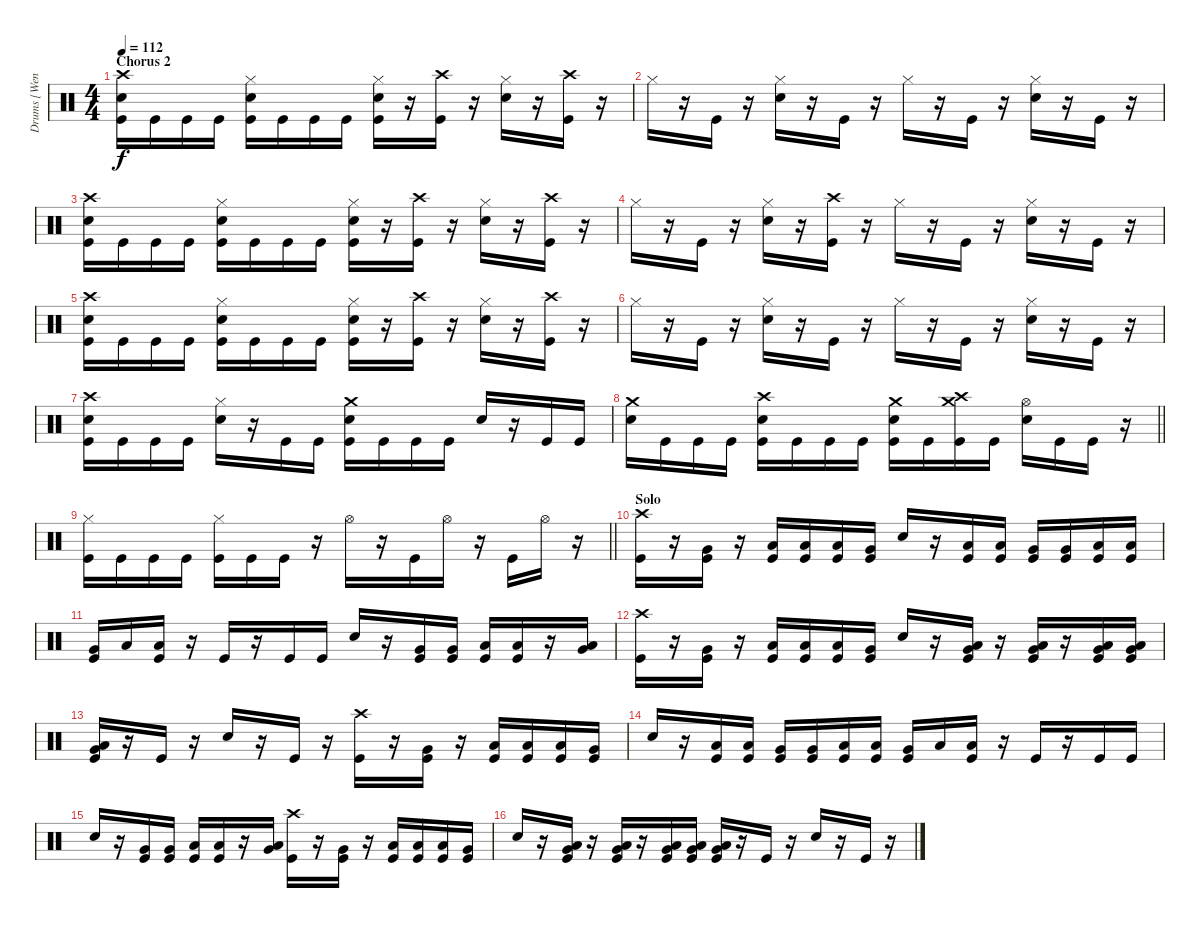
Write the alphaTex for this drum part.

\track ("Drums [Wengren]" "Drums [Wen") {instrument percussion}
\staff {score}
\articulation defaults
\ts (4 4)
\section ("" "Chorus 2")
\tempo 112
\clef neutral
\ks c
("Crash high (hit)" "Electric Snare (hit)" "Kick (hit)").16{dy f} "Kick (hit)".16 "Kick (hit)".16 "Kick (hit)".16 ("Hi-Hat (closed)" "Electric Snare (hit)" "Kick (hit)").16 "Kick (hit)".16 "Kick (hit)".16 "Kick (hit)".16 ("Hi-Hat (closed)" "Electric Snare (hit)" "Kick (hit)").16 r.16 ("Crash high (hit)" "Kick (hit)").16 r.16 ("Hi-Hat (closed)" "Electric Snare (hit)").16 r.16 ("Crash high (hit)" "Kick (hit)").16 r.16 |
"Hi-Hat (closed)".16 r.16 "Kick (hit)".16 r.16 ("Hi-Hat (closed)" "Electric Snare (hit)").16 r.16 "Kick (hit)".16 r.16 "Hi-Hat (closed)".16 r.16 "Kick (hit)".16 r.16 ("Hi-Hat (closed)" "Electric Snare (hit)").16 r.16 "Kick (hit)".16 r.16 |
("Crash high (hit)" "Electric Snare (hit)" "Kick (hit)").16 "Kick (hit)".16 "Kick (hit)".16 "Kick (hit)".16 ("Hi-Hat (closed)" "Electric Snare (hit)" "Kick (hit)").16 "Kick (hit)".16 "Kick (hit)".16 "Kick (hit)".16 ("Hi-Hat (closed)" "Electric Snare (hit)" "Kick (hit)").16 r.16 ("Crash high (hit)" "Kick (hit)").16 r.16 ("Hi-Hat (closed)" "Electric Snare (hit)").16 r.16 ("Crash high (hit)" "Kick (hit)").16 r.16 |
"Hi-Hat (closed)".16 r.16 "Kick (hit)".16 r.16 ("Hi-Hat (closed)" "Electric Snare (hit)").16 r.16 ("Crash high (hit)" "Kick (hit)").16 r.16 "Hi-Hat (closed)".16 r.16 "Kick (hit)".16 r.16 ("Hi-Hat (closed)" "Electric Snare (hit)").16 r.16 "Kick (hit)".16 r.16 |
("Crash high (hit)" "Electric Snare (hit)" "Kick (hit)").16 "Kick (hit)".16 "Kick (hit)".16 "Kick (hit)".16 ("Hi-Hat (closed)" "Electric Snare (hit)" "Kick (hit)").16 "Kick (hit)".16 "Kick (hit)".16 "Kick (hit)".16 ("Hi-Hat (closed)" "Electric Snare (hit)" "Kick (hit)").16 r.16 ("Crash high (hit)" "Kick (hit)").16 r.16 ("Hi-Hat (closed)" "Electric Snare (hit)").16 r.16 ("Crash high (hit)" "Kick (hit)").16 r.16 |
"Hi-Hat (closed)".16 r.16 "Kick (hit)".16 r.16 ("Hi-Hat (closed)" "Electric Snare (hit)").16 r.16 "Kick (hit)".16 r.16 "Hi-Hat (closed)".16 r.16 "Kick (hit)".16 r.16 ("Hi-Hat (closed)" "Electric Snare (hit)").16 r.16 "Kick (hit)".16 r.16 |
("Crash high (hit)" "Electric Snare (hit)" "Kick (hit)").16 "Kick (hit)".16 "Kick (hit)".16 "Kick (hit)".16 ("Hi-Hat (closed)" "Electric Snare (hit)").16 r.16 "Kick (hit)".16 "Kick (hit)".16 ("Crash medium (hit)" "Electric Snare (hit)" "Kick (hit)").16 "Kick (hit)".16 "Kick (hit)".16 "Kick (hit)".16 "Electric Snare (hit)".16 r.16 "Kick (hit)".16 "Kick (hit)".16 |
\barLineRight lightlight
("Crash medium (hit)" "Electric Snare (hit)").16 "Kick (hit)".16 "Kick (hit)".16 "Kick (hit)".16 ("Crash high (hit)" "Electric Snare (hit)" "Kick (hit)").16 "Kick (hit)".16 "Kick (hit)".16 "Kick (hit)".16 ("Crash medium (hit)" "Electric Snare (hit)" "Kick (hit)").16 "Kick (hit)".16 ("Crash medium (hit)" "Crash high (hit)" "Kick (hit)").16 "Kick (hit)".16 ("Hi-Hat (open)" "Electric Snare (hit)").16 "Kick (hit)".16 "Kick (hit)".16 r.16 |
\barLineRight lightlight
("Hi-Hat (closed)" "Kick (hit)").16 "Kick (hit)".16 "Kick (hit)".16 "Kick (hit)".16 ("Hi-Hat (closed)" "Kick (hit)").16 "Kick (hit)".16 "Kick (hit)".16 r.16 "Hi-Hat (open)".16 r.16 "Kick (hit)".16 "Hi-Hat (open)".16 r.16 "Kick (hit)".16 "Hi-Hat (open)".16 r.16 |
\section ("" "Solo")
("Crash high (hit)" "Kick (hit)").16 r.16 ("Very Low Tom (hit)" "Kick (hit)").16 r.16 ("Low Floor Tom (hit)" "Kick (hit)").16 ("Low Floor Tom (hit)" "Kick (hit)").16 ("Low Floor Tom (hit)" "Kick (hit)").16 ("Very Low Tom (hit)" "Kick (hit)").16 "Electric Snare (hit)".16 r.16 ("Low Tom (hit)" "Kick (hit)").16 ("Low Tom (hit)" "Kick (hit)").16 ("Very Low Tom (hit)" "Kick (hit)").16 ("Very Low Tom (hit)" "Kick (hit)").16 ("Low Floor Tom (hit)" "Kick (hit)").16 ("Low Floor Tom (hit)" "Kick (hit)").16 |
("Very Low Tom (hit)" "Kick (hit)").16 "Low Floor Tom (hit)".16 ("Low Floor Tom (hit)" "Kick (hit)").16 r.16 "Kick (hit)".16 r.16 "Kick (hit)".16 "Kick (hit)".16 "Electric Snare (hit)".16 r.16 ("Very Low Tom (hit)" "Kick (hit)").16 ("Very Low Tom (hit)" "Kick (hit)").16 ("Low Floor Tom (hit)" "Kick (hit)").16 ("Low Floor Tom (hit)" "Kick (hit)").16 r.16 ("Very Low Tom (hit)" "Low Floor Tom (hit)").16 |
("Crash high (hit)" "Kick (hit)").16 r.16 ("Very Low Tom (hit)" "Kick (hit)").16 r.16 ("Low Floor Tom (hit)" "Kick (hit)").16 ("Low Floor Tom (hit)" "Kick (hit)").16 ("Low Floor Tom (hit)" "Kick (hit)").16 ("Very Low Tom (hit)" "Kick (hit)").16 "Electric Snare (hit)".16 r.16 ("Very Low Tom (hit)" "Low Floor Tom (hit)" "Kick (hit)").16 r.16 ("Very Low Tom (hit)" "Low Floor Tom (hit)" "Kick (hit)").16 r.16 ("Very Low Tom (hit)" "Low Floor Tom (hit)" "Kick (hit)").16 ("Very Low Tom (hit)" "Low Floor Tom (hit)" "Kick (hit)").16 |
("Very Low Tom (hit)" "Low Floor Tom (hit)" "Kick (hit)").16 r.16 "Kick (hit)".16 r.16 "Electric Snare (hit)".16 r.16 "Kick (hit)".16 r.16 ("Crash high (hit)" "Kick (hit)").16 r.16 ("Very Low Tom (hit)" "Kick (hit)").16 r.16 ("Low Floor Tom (hit)" "Kick (hit)").16 ("Low Floor Tom (hit)" "Kick (hit)").16 ("Low Floor Tom (hit)" "Kick (hit)").16 ("Very Low Tom (hit)" "Kick (hit)").16 |
"Electric Snare (hit)".16 r.16 ("Low Tom (hit)" "Kick (hit)").16 ("Low Tom (hit)" "Kick (hit)").16 ("Very Low Tom (hit)" "Kick (hit)").16 ("Very Low Tom (hit)" "Kick (hit)").16 ("Low Floor Tom (hit)" "Kick (hit)").16 ("Low Floor Tom (hit)" "Kick (hit)").16 ("Very Low Tom (hit)" "Kick (hit)").16 "Low Floor Tom (hit)".16 ("Low Floor Tom (hit)" "Kick (hit)").16 r.16 "Kick (hit)".16 r.16 "Kick (hit)".16 "Kick (hit)".16 |
"Electric Snare (hit)".16 r.16 ("Very Low Tom (hit)" "Kick (hit)").16 ("Very Low Tom (hit)" "Kick (hit)").16 ("Low Floor Tom (hit)" "Kick (hit)").16 ("Low Floor Tom (hit)" "Kick (hit)").16 r.16 ("Very Low Tom (hit)" "Low Floor Tom (hit)").16 ("Crash high (hit)" "Kick (hit)").16 r.16 ("Very Low Tom (hit)" "Kick (hit)").16 r.16 ("Low Floor Tom (hit)" "Kick (hit)").16 ("Low Floor Tom (hit)" "Kick (hit)").16 ("Low Floor Tom (hit)" "Kick (hit)").16 ("Very Low Tom (hit)" "Kick (hit)").16 |
"Electric Snare (hit)".16 r.16 ("Very Low Tom (hit)" "Low Floor Tom (hit)" "Kick (hit)").16 r.16 ("Very Low Tom (hit)" "Low Floor Tom (hit)" "Kick (hit)").16 r.16 ("Very Low Tom (hit)" "Low Floor Tom (hit)" "Kick (hit)").16 ("Very Low Tom (hit)" "Low Floor Tom (hit)" "Kick (hit)").16 ("Very Low Tom (hit)" "Low Floor Tom (hit)" "Kick (hit)").16 r.16 "Kick (hit)".16 r.16 "Electric Snare (hit)".16 r.16 "Kick (hit)".16 r.16
